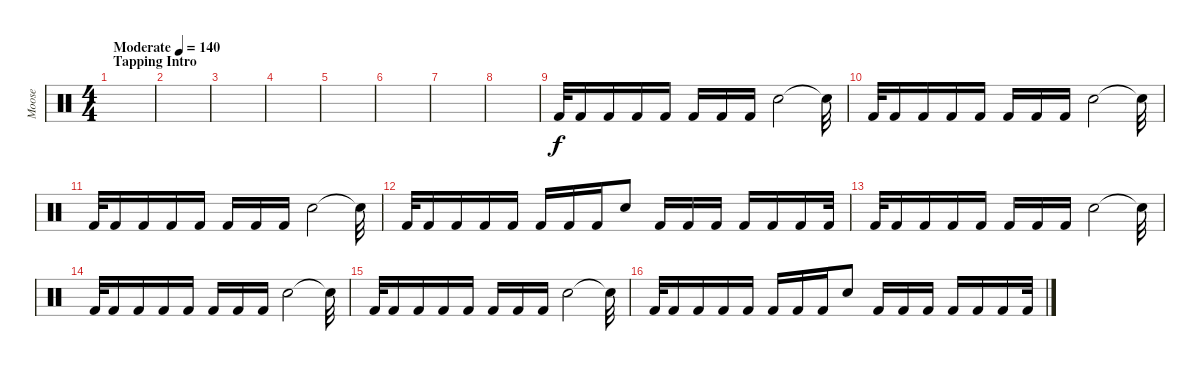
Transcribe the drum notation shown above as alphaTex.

\track ("Moose" "Moose") {instrument percussion}
\staff {score}
\articulation defaults
\ts (4 4)
\section ("" "Tapping Intro")
\tempo (140 "Moderate")
\clef neutral
\ks c
|
|
|
|
|
|
|
|
"Kick (hit) 2".32 "Kick (hit) 2".16 "Kick (hit) 2".16 "Kick (hit) 2".16 "Kick (hit) 2".16 "Kick (hit) 2".16 "Kick (hit) 2".16 "Kick (hit) 2".16 "Snare (hit) 2".2 "Snare (hit)"{t}.32 |
"Kick (hit) 2".32 "Kick (hit) 2".16 "Kick (hit) 2".16 "Kick (hit) 2".16 "Kick (hit) 2".16 "Kick (hit) 2".16 "Kick (hit) 2".16 "Kick (hit) 2".16 "Snare (hit) 2".2 "Snare (hit)"{t}.32 |
"Kick (hit) 2".32 "Kick (hit) 2".16 "Kick (hit) 2".16 "Kick (hit) 2".16 "Kick (hit) 2".16 "Kick (hit) 2".16 "Kick (hit) 2".16 "Kick (hit) 2".16 "Snare (hit) 2".2 "Snare (hit)"{t}.32 |
"Kick (hit) 2".32 "Kick (hit) 2".16 "Kick (hit) 2".16 "Kick (hit) 2".16 "Kick (hit) 2".16 "Kick (hit) 2".16 "Kick (hit) 2".16 "Kick (hit) 2".16 "Snare (hit) 2".8 "Kick (hit) 2".16 "Kick (hit) 2".16 "Kick (hit) 2".16 "Kick (hit) 2".16 "Kick (hit) 2".16 "Kick (hit) 2".16 "Kick (hit) 2".32 |
"Kick (hit) 2".32 "Kick (hit) 2".16 "Kick (hit) 2".16 "Kick (hit) 2".16 "Kick (hit) 2".16 "Kick (hit) 2".16 "Kick (hit) 2".16 "Kick (hit) 2".16 "Snare (hit) 2".2 "Snare (hit)"{t}.32 |
"Kick (hit) 2".32 "Kick (hit) 2".16 "Kick (hit) 2".16 "Kick (hit) 2".16 "Kick (hit) 2".16 "Kick (hit) 2".16 "Kick (hit) 2".16 "Kick (hit) 2".16 "Snare (hit) 2".2 "Snare (hit)"{t}.32 |
"Kick (hit) 2".32 "Kick (hit) 2".16 "Kick (hit) 2".16 "Kick (hit) 2".16 "Kick (hit) 2".16 "Kick (hit) 2".16 "Kick (hit) 2".16 "Kick (hit) 2".16 "Snare (hit) 2".2 "Snare (hit)"{t}.32 |
"Kick (hit) 2".32 "Kick (hit) 2".16 "Kick (hit) 2".16 "Kick (hit) 2".16 "Kick (hit) 2".16 "Kick (hit) 2".16 "Kick (hit) 2".16 "Kick (hit) 2".16 "Snare (hit) 2".8 "Kick (hit) 2".16 "Kick (hit) 2".16 "Kick (hit) 2".16 "Kick (hit) 2".16 "Kick (hit) 2".16 "Kick (hit) 2".16 "Kick (hit) 2".32
